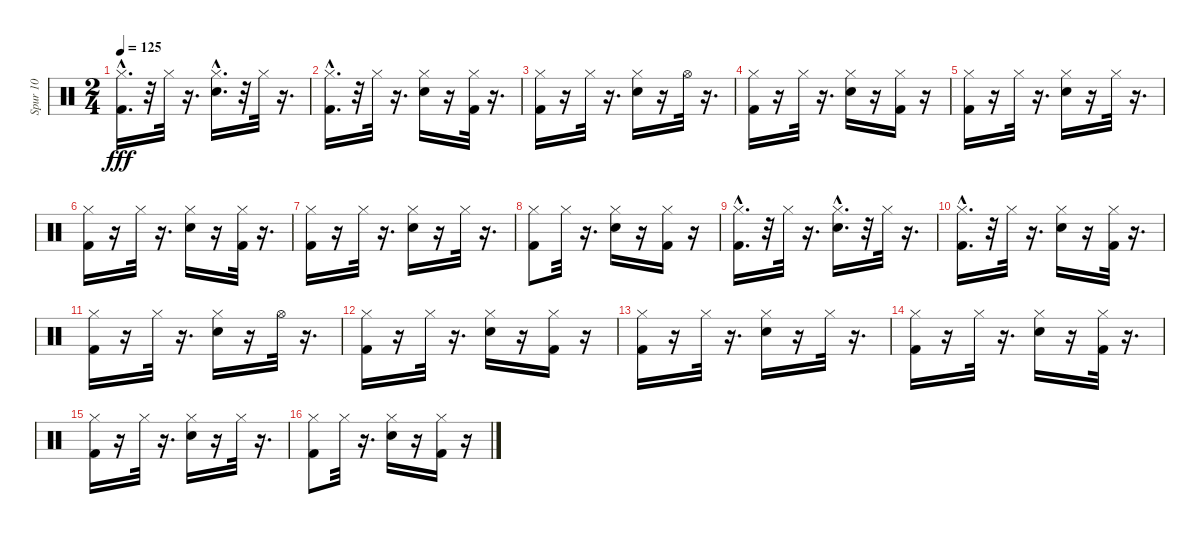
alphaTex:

\track ("Spur 10" "Spur 10") {instrument percussion}
\staff {score}
\articulation defaults
\ts (2 4)
\tempo 125
\clef neutral
\ks c
("Kick (hit) 2"{hac} "Hi-Hat (closed)").16{d dy fff} r.32 "Hi-Hat (closed)".32 r.16{d} ("Snare (hit) 2"{hac} "Hi-Hat (closed)").16{d} r.32 "Hi-Hat (closed)".32 r.16{d} |
("Kick (hit) 2"{hac} "Hi-Hat (closed)").16{d} r.32 "Hi-Hat (closed)".32 r.16{d} ("Snare (hit) 2" "Hi-Hat (closed)").16 r.16 ("Kick (hit) 2" "Hi-Hat (closed)").32 r.16{d} |
("Kick (hit) 2" "Hi-Hat (closed)").16 r.16 "Hi-Hat (closed)".32 r.16{d} ("Snare (hit) 2" "Hi-Hat (closed)").16 r.16 "Hi-Hat (open)".32 r.16{d} |
("Kick (hit) 2" "Hi-Hat (closed)").16 r.16 "Hi-Hat (closed)".32 r.16{d} ("Snare (hit) 2" "Hi-Hat (closed)").16 r.16 ("Kick (hit) 2" "Hi-Hat (closed)").16 r.16 |
("Kick (hit) 2" "Hi-Hat (closed)").16 r.16 "Hi-Hat (closed)".32 r.16{d} ("Snare (hit) 2" "Hi-Hat (closed)").16 r.16 "Hi-Hat (closed)".32 r.16{d} |
("Kick (hit) 2" "Hi-Hat (closed)").16 r.16 "Hi-Hat (closed)".32 r.16{d} ("Snare (hit) 2" "Hi-Hat (closed)").16 r.16 ("Kick (hit) 2" "Hi-Hat (closed)").32 r.16{d} |
("Kick (hit) 2" "Hi-Hat (closed)").16 r.16 "Hi-Hat (closed)".32 r.16{d} ("Snare (hit) 2" "Hi-Hat (closed)").16 r.16 "Hi-Hat (closed)".32 r.16{d} |
("Kick (hit) 2" "Hi-Hat (closed)").8 "Hi-Hat (closed)".32 r.16{d} ("Snare (hit) 2" "Hi-Hat (closed)").16 r.16 ("Kick (hit) 2" "Hi-Hat (closed)").16 r.16 |
("Kick (hit) 2"{hac} "Hi-Hat (closed)").16{d} r.32 "Hi-Hat (closed)".32 r.16{d} ("Snare (hit) 2"{hac} "Hi-Hat (closed)").16{d} r.32 "Hi-Hat (closed)".32 r.16{d} |
("Kick (hit) 2"{hac} "Hi-Hat (closed)").16{d} r.32 "Hi-Hat (closed)".32 r.16{d} ("Snare (hit) 2" "Hi-Hat (closed)").16 r.16 ("Kick (hit) 2" "Hi-Hat (closed)").32 r.16{d} |
("Kick (hit) 2" "Hi-Hat (closed)").16 r.16 "Hi-Hat (closed)".32 r.16{d} ("Snare (hit) 2" "Hi-Hat (closed)").16 r.16 "Hi-Hat (open)".32 r.16{d} |
("Kick (hit) 2" "Hi-Hat (closed)").16 r.16 "Hi-Hat (closed)".32 r.16{d} ("Snare (hit) 2" "Hi-Hat (closed)").16 r.16 ("Kick (hit) 2" "Hi-Hat (closed)").16 r.16 |
("Kick (hit) 2" "Hi-Hat (closed)").16 r.16 "Hi-Hat (closed)".32 r.16{d} ("Snare (hit) 2" "Hi-Hat (closed)").16 r.16 "Hi-Hat (closed)".32 r.16{d} |
("Kick (hit) 2" "Hi-Hat (closed)").16 r.16 "Hi-Hat (closed)".32 r.16{d} ("Snare (hit) 2" "Hi-Hat (closed)").16 r.16 ("Kick (hit) 2" "Hi-Hat (closed)").32 r.16{d} |
("Kick (hit) 2" "Hi-Hat (closed)").16 r.16 "Hi-Hat (closed)".32 r.16{d} ("Snare (hit) 2" "Hi-Hat (closed)").16 r.16 "Hi-Hat (closed)".32 r.16{d} |
("Kick (hit) 2" "Hi-Hat (closed)").8 "Hi-Hat (closed)".32 r.16{d} ("Snare (hit) 2" "Hi-Hat (closed)").16 r.16 ("Kick (hit) 2" "Hi-Hat (closed)").16 r.16
